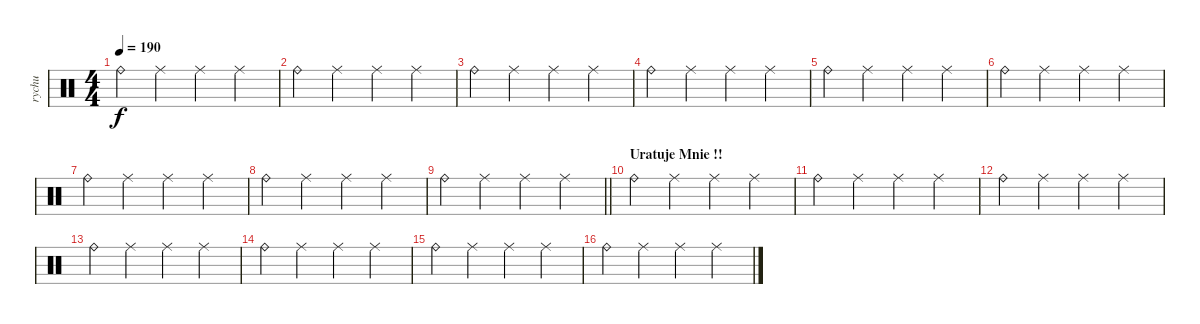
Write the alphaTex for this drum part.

\track ("rychu" "rychu") {instrument percussion}
\staff {score}
\articulation defaults
\ts (4 4)
\tempo 190
\clef neutral
\ks c "Ride (bell)".4{dy f} "Ride (middle)".4 "Ride (middle)".4 "Ride (middle)".4
|
"Ride (bell)".4 "Ride (middle)".4 "Ride (middle)".4 "Ride (middle)".4 |
"Ride (bell)".4 "Ride (middle)".4 "Ride (middle)".4 "Ride (middle)".4 |
"Ride (bell)".4 "Ride (middle)".4 "Ride (middle)".4 "Ride (middle)".4 |
"Ride (bell)".4 "Ride (middle)".4 "Ride (middle)".4 "Ride (middle)".4 |
"Ride (bell)".4 "Ride (middle)".4 "Ride (middle)".4 "Ride (middle)".4 |
"Ride (bell)".4 "Ride (middle)".4 "Ride (middle)".4 "Ride (middle)".4 |
"Ride (bell)".4 "Ride (middle)".4 "Ride (middle)".4 "Ride (middle)".4 |
\barLineRight lightlight "Ride (bell)".4 "Ride (middle)".4 "Ride (middle)".4 "Ride (middle)".4
|
\section ("" "Uratuje Mnie !!")
"Ride (bell)".4 "Ride (middle)".4 "Ride (middle)".4 "Ride (middle)".4 |
"Ride (bell)".4 "Ride (middle)".4 "Ride (middle)".4 "Ride (middle)".4 |
"Ride (bell)".4 "Ride (middle)".4 "Ride (middle)".4 "Ride (middle)".4 |
"Ride (bell)".4 "Ride (middle)".4 "Ride (middle)".4 "Ride (middle)".4 |
"Ride (bell)".4 "Ride (middle)".4 "Ride (middle)".4 "Ride (middle)".4 |
"Ride (bell)".4 "Ride (middle)".4 "Ride (middle)".4 "Ride (middle)".4 |
"Ride (bell)".4 "Ride (middle)".4 "Ride (middle)".4 "Ride (middle)".4
